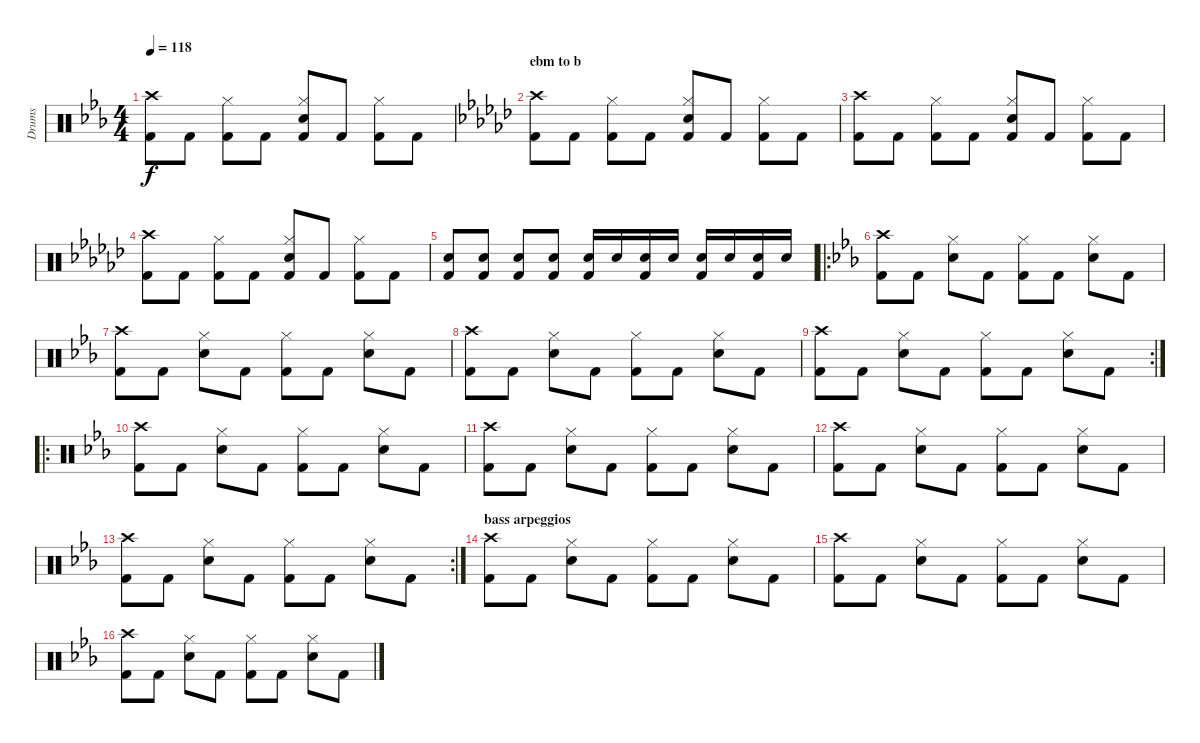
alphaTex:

\track ("Drums" "Drums") {instrument percussion}
\staff {score}
\articulation defaults
\ts (4 4)
\tempo 118
\clef neutral
\ks cminor
("Crash high (hit)" "Kick (hit) 2").8{dy f} "Kick (hit) 2".8 ("Hi-Hat (closed)" "Kick (hit) 2").8 "Kick (hit) 2".8 ("Hi-Hat (closed)" "Electric Snare (hit)" "Kick (hit) 2").8 "Kick (hit) 2".8 ("Hi-Hat (closed)" "Kick (hit) 2").8 "Kick (hit) 2".8 |
\section ("" "ebm to b")
\ks ebminor
("Crash high (hit)" "Kick (hit) 2").8 "Kick (hit) 2".8 ("Hi-Hat (closed)" "Kick (hit) 2").8 "Kick (hit) 2".8 ("Hi-Hat (closed)" "Electric Snare (hit)" "Kick (hit) 2").8 "Kick (hit) 2".8 ("Hi-Hat (closed)" "Kick (hit) 2").8 "Kick (hit) 2".8 |
("Crash high (hit)" "Kick (hit) 2").8 "Kick (hit) 2".8 ("Hi-Hat (closed)" "Kick (hit) 2").8 "Kick (hit) 2".8 ("Hi-Hat (closed)" "Electric Snare (hit)" "Kick (hit) 2").8 "Kick (hit) 2".8 ("Hi-Hat (closed)" "Kick (hit) 2").8 "Kick (hit) 2".8 |
("Crash high (hit)" "Kick (hit) 2").8 "Kick (hit) 2".8 ("Hi-Hat (closed)" "Kick (hit) 2").8 "Kick (hit) 2".8 ("Hi-Hat (closed)" "Electric Snare (hit)" "Kick (hit) 2").8 "Kick (hit) 2".8 ("Hi-Hat (closed)" "Kick (hit) 2").8 "Kick (hit) 2".8 |
("Electric Snare (hit)" "Kick (hit) 2").8 ("Electric Snare (hit)" "Kick (hit) 2").8 ("Electric Snare (hit)" "Kick (hit) 2").8 ("Electric Snare (hit)" "Kick (hit) 2").8 ("Electric Snare (hit)" "Kick (hit) 2").16 "Electric Snare (hit)".16 ("Electric Snare (hit)" "Kick (hit) 2").16 "Electric Snare (hit)".16 ("Electric Snare (hit)" "Kick (hit) 2").16 "Electric Snare (hit)".16 ("Electric Snare (hit)" "Kick (hit) 2").16 "Electric Snare (hit)".16 |
\ro
\ks eb
("Crash high (hit)" "Kick (hit) 2").8 "Kick (hit) 2".8 ("Hi-Hat (closed)" "Electric Snare (hit)").8 "Kick (hit) 2".8 ("Hi-Hat (closed)" "Kick (hit) 2").8 "Kick (hit) 2".8 ("Hi-Hat (closed)" "Electric Snare (hit)").8 "Kick (hit) 2".8 |
("Crash high (hit)" "Kick (hit) 2").8 "Kick (hit) 2".8 ("Hi-Hat (closed)" "Electric Snare (hit)").8 "Kick (hit) 2".8 ("Hi-Hat (closed)" "Kick (hit) 2").8 "Kick (hit) 2".8 ("Hi-Hat (closed)" "Electric Snare (hit)").8 "Kick (hit) 2".8 |
("Crash high (hit)" "Kick (hit) 2").8 "Kick (hit) 2".8 ("Hi-Hat (closed)" "Electric Snare (hit)").8 "Kick (hit) 2".8 ("Hi-Hat (closed)" "Kick (hit) 2").8 "Kick (hit) 2".8 ("Hi-Hat (closed)" "Electric Snare (hit)").8 "Kick (hit) 2".8 |
\rc 2
("Crash high (hit)" "Kick (hit) 2").8 "Kick (hit) 2".8 ("Hi-Hat (closed)" "Electric Snare (hit)").8 "Kick (hit) 2".8 ("Hi-Hat (closed)" "Kick (hit) 2").8 "Kick (hit) 2".8 ("Hi-Hat (closed)" "Electric Snare (hit)").8 "Kick (hit) 2".8 |
\ro
("Crash high (hit)" "Kick (hit) 2").8 "Kick (hit) 2".8 ("Hi-Hat (closed)" "Electric Snare (hit)").8 "Kick (hit) 2".8 ("Hi-Hat (closed)" "Kick (hit) 2").8 "Kick (hit) 2".8 ("Hi-Hat (closed)" "Electric Snare (hit)").8 "Kick (hit) 2".8 |
("Crash high (hit)" "Kick (hit) 2").8 "Kick (hit) 2".8 ("Hi-Hat (closed)" "Electric Snare (hit)").8 "Kick (hit) 2".8 ("Hi-Hat (closed)" "Kick (hit) 2").8 "Kick (hit) 2".8 ("Hi-Hat (closed)" "Electric Snare (hit)").8 "Kick (hit) 2".8 |
("Crash high (hit)" "Kick (hit) 2").8 "Kick (hit) 2".8 ("Hi-Hat (closed)" "Electric Snare (hit)").8 "Kick (hit) 2".8 ("Hi-Hat (closed)" "Kick (hit) 2").8 "Kick (hit) 2".8 ("Hi-Hat (closed)" "Electric Snare (hit)").8 "Kick (hit) 2".8 |
\rc 2
("Crash high (hit)" "Kick (hit) 2").8 "Kick (hit) 2".8 ("Hi-Hat (closed)" "Electric Snare (hit)").8 "Kick (hit) 2".8 ("Hi-Hat (closed)" "Kick (hit) 2").8 "Kick (hit) 2".8 ("Hi-Hat (closed)" "Electric Snare (hit)").8 "Kick (hit) 2".8 |
\section ("" "bass arpeggios")
("Crash high (hit)" "Kick (hit) 2").8 "Kick (hit) 2".8 ("Hi-Hat (closed)" "Electric Snare (hit)").8 "Kick (hit) 2".8 ("Hi-Hat (closed)" "Kick (hit) 2").8 "Kick (hit) 2".8 ("Hi-Hat (closed)" "Electric Snare (hit)").8 "Kick (hit) 2".8 |
("Crash high (hit)" "Kick (hit) 2").8 "Kick (hit) 2".8 ("Hi-Hat (closed)" "Electric Snare (hit)").8 "Kick (hit) 2".8 ("Hi-Hat (closed)" "Kick (hit) 2").8 "Kick (hit) 2".8 ("Hi-Hat (closed)" "Electric Snare (hit)").8 "Kick (hit) 2".8 |
("Crash high (hit)" "Kick (hit) 2").8 "Kick (hit) 2".8 ("Hi-Hat (closed)" "Electric Snare (hit)").8 "Kick (hit) 2".8 ("Hi-Hat (closed)" "Kick (hit) 2").8 "Kick (hit) 2".8 ("Hi-Hat (closed)" "Electric Snare (hit)").8 "Kick (hit) 2".8
